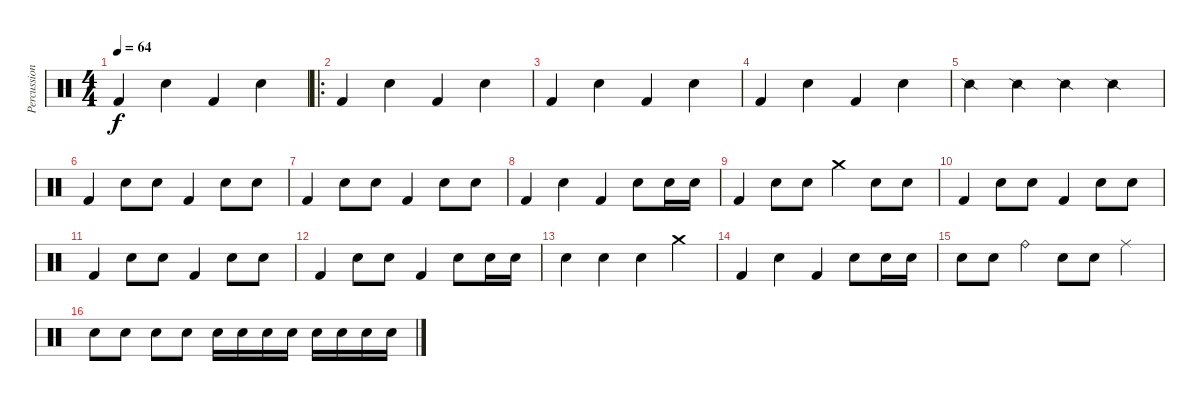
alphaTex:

\track ("Percussion" "Percussion") {instrument percussion}
\staff {score}
\articulation defaults
\ts (4 4)
\tempo 64
\clef neutral
\ks c "Kick (hit) 2".4{dy f} "Electric Snare (hit)".4 "Kick (hit) 2".4 "Electric Snare (hit)".4
|
\ro "Kick (hit) 2".4 "Electric Snare (hit)".4 "Kick (hit) 2".4 "Electric Snare (hit)".4
|
"Kick (hit) 2".4 "Electric Snare (hit)".4 "Kick (hit) 2".4 "Electric Snare (hit)".4 |
"Kick (hit) 2".4 "Electric Snare (hit)".4 "Kick (hit) 2".4 "Electric Snare (hit)".4 |
"Snare (side stick) 2".4 "Snare (side stick) 2".4 "Snare (side stick) 2".4 "Snare (side stick) 2".4 |
"Kick (hit) 2".4 "Electric Snare (hit)".8 "Electric Snare (hit)".8 "Kick (hit) 2".4 "Electric Snare (hit)".8 "Electric Snare (hit)".8 |
"Kick (hit) 2".4 "Electric Snare (hit)".8 "Electric Snare (hit)".8 "Kick (hit) 2".4 "Electric Snare (hit)".8 "Electric Snare (hit)".8 |
"Kick (hit) 2".4 "Electric Snare (hit)".4 "Kick (hit) 2".4 "Electric Snare (hit)".8 "Electric Snare (hit)".16 "Electric Snare (hit)".16 |
"Kick (hit) 2".4 "Electric Snare (hit)".8 "Electric Snare (hit)".8 "Crash medium (hit)".4 "Electric Snare (hit)".8 "Electric Snare (hit)".8 |
"Kick (hit) 2".4 "Electric Snare (hit)".8 "Electric Snare (hit)".8 "Kick (hit) 2".4 "Electric Snare (hit)".8 "Electric Snare (hit)".8 |
"Kick (hit) 2".4 "Electric Snare (hit)".8 "Electric Snare (hit)".8 "Kick (hit) 2".4 "Electric Snare (hit)".8 "Electric Snare (hit)".8 |
"Kick (hit) 2".4 "Electric Snare (hit)".8 "Electric Snare (hit)".8 "Kick (hit) 2".4 "Electric Snare (hit)".8 "Electric Snare (hit)".16 "Electric Snare (hit)".16 |
"Electric Snare (hit)".4 "Electric Snare (hit)".4 "Electric Snare (hit)".4 "Crash medium (hit)".4 |
"Kick (hit) 2".4 "Electric Snare (hit)".4 "Kick (hit) 2".4 "Electric Snare (hit)".8 "Electric Snare (hit)".16 "Electric Snare (hit)".16 |
"Electric Snare (hit)".8 "Electric Snare (hit)".8 "Ride (bell)".4 "Electric Snare (hit)".8 "Electric Snare (hit)".8 "Ride (middle)".4 |
"Electric Snare (hit)".8 "Electric Snare (hit)".8 "Electric Snare (hit)".8 "Electric Snare (hit)".8 "Electric Snare (hit)".16 "Electric Snare (hit)".16 "Electric Snare (hit)".16 "Electric Snare (hit)".16 "Electric Snare (hit)".16 "Electric Snare (hit)".16 "Electric Snare (hit)".16 "Electric Snare (hit)".16
